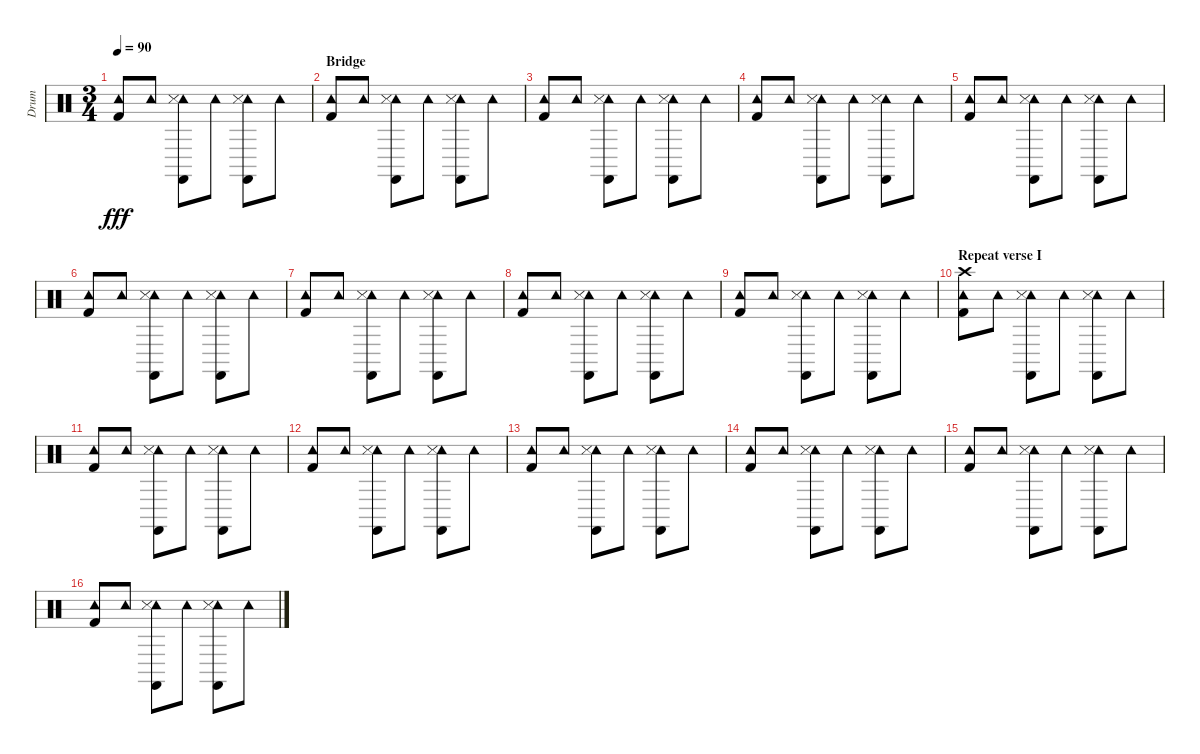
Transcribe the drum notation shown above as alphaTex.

\track ("Drum" "Drum") {instrument percussion}
\staff {score}
\articulation defaults
\ts (3 4)
\tempo 90
\clef neutral
\ks c
("Kick (hit) 2" "Tambourine (hit)").8{dy fff} "Tambourine (hit)".8 ("Castanets (hit)" "Tambourine (hit)" "Snare (side stick) 3").8 "Tambourine (hit)".8 ("Castanets (hit)" "Tambourine (hit)" "Snare (side stick) 3").8 "Tambourine (hit)".8 |
\section ("" "Bridge")
("Kick (hit) 2" "Tambourine (hit)").8 "Tambourine (hit)".8 ("Castanets (hit)" "Tambourine (hit)" "Snare (side stick) 3").8 "Tambourine (hit)".8 ("Castanets (hit)" "Tambourine (hit)" "Snare (side stick) 3").8 "Tambourine (hit)".8 |
("Kick (hit) 2" "Tambourine (hit)").8 "Tambourine (hit)".8 ("Castanets (hit)" "Tambourine (hit)" "Snare (side stick) 3").8 "Tambourine (hit)".8 ("Castanets (hit)" "Tambourine (hit)" "Snare (side stick) 3").8 "Tambourine (hit)".8 |
("Kick (hit) 2" "Tambourine (hit)").8 "Tambourine (hit)".8 ("Castanets (hit)" "Tambourine (hit)" "Snare (side stick) 3").8 "Tambourine (hit)".8 ("Castanets (hit)" "Tambourine (hit)" "Snare (side stick) 3").8 "Tambourine (hit)".8 |
("Kick (hit) 2" "Tambourine (hit)").8 "Tambourine (hit)".8 ("Castanets (hit)" "Tambourine (hit)" "Snare (side stick) 3").8 "Tambourine (hit)".8 ("Castanets (hit)" "Tambourine (hit)" "Snare (side stick) 3").8 "Tambourine (hit)".8 |
("Kick (hit) 2" "Tambourine (hit)").8 "Tambourine (hit)".8 ("Castanets (hit)" "Tambourine (hit)" "Snare (side stick) 3").8 "Tambourine (hit)".8 ("Castanets (hit)" "Tambourine (hit)" "Snare (side stick) 3").8 "Tambourine (hit)".8 |
("Kick (hit) 2" "Tambourine (hit)").8 "Tambourine (hit)".8 ("Castanets (hit)" "Tambourine (hit)" "Snare (side stick) 3").8 "Tambourine (hit)".8 ("Castanets (hit)" "Tambourine (hit)" "Snare (side stick) 3").8 "Tambourine (hit)".8 |
("Kick (hit) 2" "Tambourine (hit)").8 "Tambourine (hit)".8 ("Castanets (hit)" "Tambourine (hit)" "Snare (side stick) 3").8 "Tambourine (hit)".8 ("Castanets (hit)" "Tambourine (hit)" "Snare (side stick) 3").8 "Tambourine (hit)".8 |
("Kick (hit) 2" "Tambourine (hit)").8 "Tambourine (hit)".8 ("Castanets (hit)" "Tambourine (hit)" "Snare (side stick) 3").8 "Tambourine (hit)".8 ("Castanets (hit)" "Tambourine (hit)" "Snare (side stick) 3").8 "Tambourine (hit)".8 |
\section ("" "Repeat verse I")
("Kick (hit) 2" "Crash high (hit)" "Tambourine (hit)").8 "Tambourine (hit)".8 ("Castanets (hit)" "Tambourine (hit)" "Snare (side stick) 3").8 "Tambourine (hit)".8 ("Castanets (hit)" "Tambourine (hit)" "Snare (side stick) 3").8 "Tambourine (hit)".8 |
("Kick (hit) 2" "Tambourine (hit)").8 "Tambourine (hit)".8 ("Castanets (hit)" "Tambourine (hit)" "Snare (side stick) 3").8 "Tambourine (hit)".8 ("Castanets (hit)" "Tambourine (hit)" "Snare (side stick) 3").8 "Tambourine (hit)".8 |
("Kick (hit) 2" "Tambourine (hit)").8 "Tambourine (hit)".8 ("Castanets (hit)" "Tambourine (hit)" "Snare (side stick) 3").8 "Tambourine (hit)".8 ("Castanets (hit)" "Tambourine (hit)" "Snare (side stick) 3").8 "Tambourine (hit)".8 |
("Kick (hit) 2" "Tambourine (hit)").8 "Tambourine (hit)".8 ("Castanets (hit)" "Tambourine (hit)" "Snare (side stick) 3").8 "Tambourine (hit)".8 ("Castanets (hit)" "Tambourine (hit)" "Snare (side stick) 3").8 "Tambourine (hit)".8 |
("Kick (hit) 2" "Tambourine (hit)").8 "Tambourine (hit)".8 ("Castanets (hit)" "Tambourine (hit)" "Snare (side stick) 3").8 "Tambourine (hit)".8 ("Castanets (hit)" "Tambourine (hit)" "Snare (side stick) 3").8 "Tambourine (hit)".8 |
("Kick (hit) 2" "Tambourine (hit)").8 "Tambourine (hit)".8 ("Castanets (hit)" "Tambourine (hit)" "Snare (side stick) 3").8 "Tambourine (hit)".8 ("Castanets (hit)" "Tambourine (hit)" "Snare (side stick) 3").8 "Tambourine (hit)".8 |
("Kick (hit) 2" "Tambourine (hit)").8 "Tambourine (hit)".8 ("Castanets (hit)" "Tambourine (hit)" "Snare (side stick) 3").8 "Tambourine (hit)".8 ("Castanets (hit)" "Tambourine (hit)" "Snare (side stick) 3").8 "Tambourine (hit)".8
